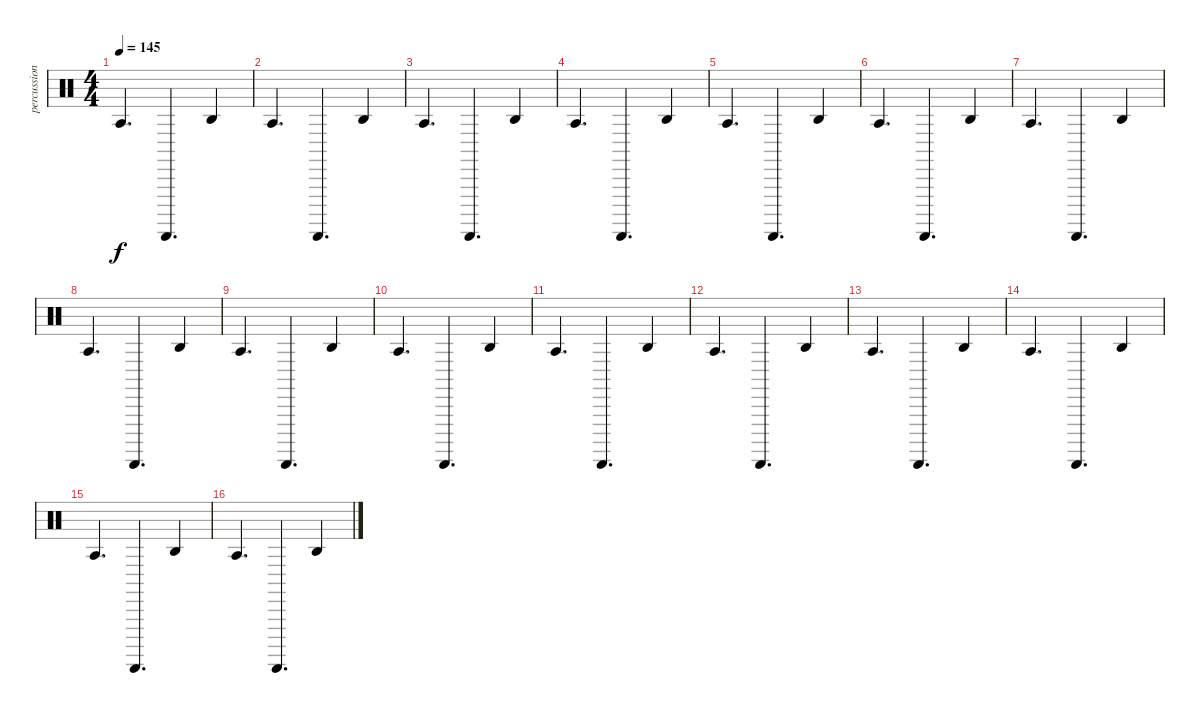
\track ("percussion" "percussion") {instrument percussion}
\staff {score}
\articulation defaults
\ts (4 4)
\tempo 145
\clef neutral
\ks c "Agogo tow (hit)".4{d dy f} "Guiro (scrap-return)".4{d} "Agogo high (hit)".4
|
"Agogo tow (hit)".4{d} "Guiro (scrap-return)".4{d} "Agogo high (hit)".4 |
"Agogo tow (hit)".4{d} "Guiro (scrap-return)".4{d} "Agogo high (hit)".4 |
"Agogo tow (hit)".4{d} "Guiro (scrap-return)".4{d} "Agogo high (hit)".4 |
"Agogo tow (hit)".4{d} "Guiro (scrap-return)".4{d} "Agogo high (hit)".4 |
"Agogo tow (hit)".4{d} "Guiro (scrap-return)".4{d} "Agogo high (hit)".4 |
"Agogo tow (hit)".4{d} "Guiro (scrap-return)".4{d} "Agogo high (hit)".4 |
"Agogo tow (hit)".4{d} "Guiro (scrap-return)".4{d} "Agogo high (hit)".4 |
"Agogo tow (hit)".4{d} "Guiro (scrap-return)".4{d} "Agogo high (hit)".4 |
"Agogo tow (hit)".4{d} "Guiro (scrap-return)".4{d} "Agogo high (hit)".4 |
"Agogo tow (hit)".4{d} "Guiro (scrap-return)".4{d} "Agogo high (hit)".4 |
"Agogo tow (hit)".4{d} "Guiro (scrap-return)".4{d} "Agogo high (hit)".4 |
"Agogo tow (hit)".4{d} "Guiro (scrap-return)".4{d} "Agogo high (hit)".4 |
"Agogo tow (hit)".4{d} "Guiro (scrap-return)".4{d} "Agogo high (hit)".4 |
"Agogo tow (hit)".4{d} "Guiro (scrap-return)".4{d} "Agogo high (hit)".4 |
"Agogo tow (hit)".4{d} "Guiro (scrap-return)".4{d} "Agogo high (hit)".4
